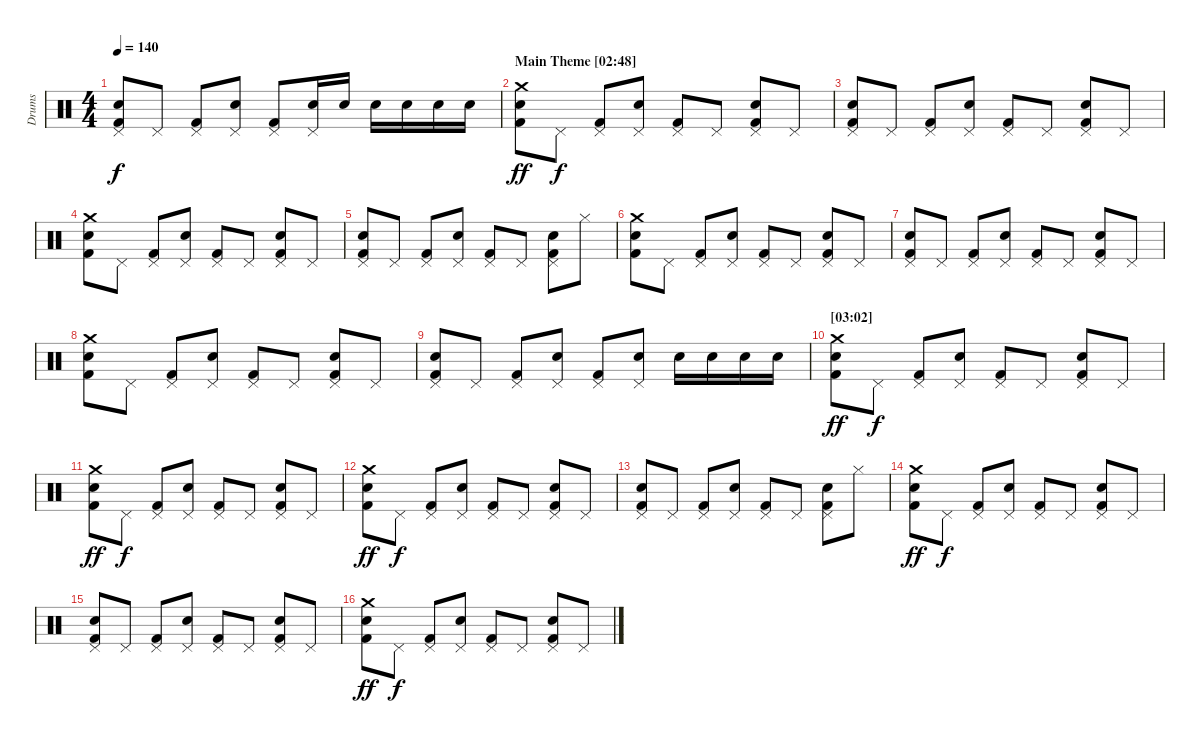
\track ("Drums" "Drums") {instrument percussion}
\staff {score}
\articulation defaults
\ts (4 4)
\tempo 140
\clef neutral
\ks c
("Pedal Hi-Hat (hit)" "Electric Snare (hit)" "Kick (hit) 2").8{dy f} "Pedal Hi-Hat (hit)".8 ("Pedal Hi-Hat (hit)" "Kick (hit) 2").8 ("Pedal Hi-Hat (hit)" "Electric Snare (hit)").8 ("Pedal Hi-Hat (hit)" "Kick (hit) 2").8 ("Pedal Hi-Hat (hit)" "Electric Snare (hit)").16 "Electric Snare (hit)".16 "Electric Snare (hit)".16 "Electric Snare (hit)".16 "Electric Snare (hit)".16 "Electric Snare (hit)".16 |
\section ("" "Main Theme [02:48]")
("Crash medium (hit)" "Electric Snare (hit)" "Kick (hit) 2").8{dy ff} "Pedal Hi-Hat (hit)".8{dy f} ("Pedal Hi-Hat (hit)" "Kick (hit) 2").8 ("Pedal Hi-Hat (hit)" "Electric Snare (hit)").8 ("Pedal Hi-Hat (hit)" "Kick (hit) 2").8 "Pedal Hi-Hat (hit)".8 ("Pedal Hi-Hat (hit)" "Electric Snare (hit)" "Kick (hit) 2").8 "Pedal Hi-Hat (hit)".8 |
("Pedal Hi-Hat (hit)" "Electric Snare (hit)" "Kick (hit) 2").8 "Pedal Hi-Hat (hit)".8 ("Pedal Hi-Hat (hit)" "Kick (hit) 2").8 ("Pedal Hi-Hat (hit)" "Electric Snare (hit)").8 ("Pedal Hi-Hat (hit)" "Kick (hit) 2").8 "Pedal Hi-Hat (hit)".8 ("Pedal Hi-Hat (hit)" "Electric Snare (hit)" "Kick (hit) 2").8 "Pedal Hi-Hat (hit)".8 |
("Crash medium (hit)" "Electric Snare (hit)" "Kick (hit) 2").8 "Pedal Hi-Hat (hit)".8 ("Pedal Hi-Hat (hit)" "Kick (hit) 2").8 ("Pedal Hi-Hat (hit)" "Electric Snare (hit)").8 ("Pedal Hi-Hat (hit)" "Kick (hit) 2").8 "Pedal Hi-Hat (hit)".8 ("Pedal Hi-Hat (hit)" "Electric Snare (hit)" "Kick (hit) 2").8 "Pedal Hi-Hat (hit)".8 |
("Pedal Hi-Hat (hit)" "Electric Snare (hit)" "Kick (hit) 2").8 "Pedal Hi-Hat (hit)".8 ("Pedal Hi-Hat (hit)" "Kick (hit) 2").8 ("Pedal Hi-Hat (hit)" "Electric Snare (hit)").8 ("Pedal Hi-Hat (hit)" "Kick (hit) 2").8 "Pedal Hi-Hat (hit)".8 ("Pedal Hi-Hat (hit)" "Electric Snare (hit)" "Kick (hit) 2").8 "Hi-Hat (closed)".8 |
("Crash medium (hit)" "Electric Snare (hit)" "Kick (hit) 2").8 "Pedal Hi-Hat (hit)".8 ("Pedal Hi-Hat (hit)" "Kick (hit) 2").8 ("Pedal Hi-Hat (hit)" "Electric Snare (hit)").8 ("Pedal Hi-Hat (hit)" "Kick (hit) 2").8 "Pedal Hi-Hat (hit)".8 ("Pedal Hi-Hat (hit)" "Electric Snare (hit)" "Kick (hit) 2").8 "Pedal Hi-Hat (hit)".8 |
("Pedal Hi-Hat (hit)" "Electric Snare (hit)" "Kick (hit) 2").8 "Pedal Hi-Hat (hit)".8 ("Pedal Hi-Hat (hit)" "Kick (hit) 2").8 ("Pedal Hi-Hat (hit)" "Electric Snare (hit)").8 ("Pedal Hi-Hat (hit)" "Kick (hit) 2").8 "Pedal Hi-Hat (hit)".8 ("Pedal Hi-Hat (hit)" "Electric Snare (hit)" "Kick (hit) 2").8 "Pedal Hi-Hat (hit)".8 |
("Crash medium (hit)" "Electric Snare (hit)" "Kick (hit) 2").8 "Pedal Hi-Hat (hit)".8 ("Pedal Hi-Hat (hit)" "Kick (hit) 2").8 ("Pedal Hi-Hat (hit)" "Electric Snare (hit)").8 ("Pedal Hi-Hat (hit)" "Kick (hit) 2").8 "Pedal Hi-Hat (hit)".8 ("Pedal Hi-Hat (hit)" "Electric Snare (hit)" "Kick (hit) 2").8 "Pedal Hi-Hat (hit)".8 |
("Pedal Hi-Hat (hit)" "Electric Snare (hit)" "Kick (hit) 2").8 "Pedal Hi-Hat (hit)".8 ("Pedal Hi-Hat (hit)" "Kick (hit) 2").8 ("Pedal Hi-Hat (hit)" "Electric Snare (hit)").8 ("Pedal Hi-Hat (hit)" "Kick (hit) 2").8 ("Pedal Hi-Hat (hit)" "Electric Snare (hit)").8 "Electric Snare (hit)".16 "Electric Snare (hit)".16 "Electric Snare (hit)".16 "Electric Snare (hit)".16 |
\section ("" "[03:02]")
("Crash medium (hit)" "Electric Snare (hit)" "Kick (hit) 2").8{dy ff} "Pedal Hi-Hat (hit)".8{dy f} ("Pedal Hi-Hat (hit)" "Kick (hit) 2").8 ("Pedal Hi-Hat (hit)" "Electric Snare (hit)").8 ("Pedal Hi-Hat (hit)" "Kick (hit) 2").8 "Pedal Hi-Hat (hit)".8 ("Pedal Hi-Hat (hit)" "Electric Snare (hit)" "Kick (hit) 2").8 "Pedal Hi-Hat (hit)".8 |
("Crash medium (hit)" "Electric Snare (hit)" "Kick (hit) 2").8{dy ff} "Pedal Hi-Hat (hit)".8{dy f} ("Pedal Hi-Hat (hit)" "Kick (hit) 2").8 ("Pedal Hi-Hat (hit)" "Electric Snare (hit)").8 ("Pedal Hi-Hat (hit)" "Kick (hit) 2").8 "Pedal Hi-Hat (hit)".8 ("Pedal Hi-Hat (hit)" "Electric Snare (hit)" "Kick (hit) 2").8 "Pedal Hi-Hat (hit)".8 |
("Crash medium (hit)" "Electric Snare (hit)" "Kick (hit) 2").8{dy ff} "Pedal Hi-Hat (hit)".8{dy f} ("Pedal Hi-Hat (hit)" "Kick (hit) 2").8 ("Pedal Hi-Hat (hit)" "Electric Snare (hit)").8 ("Pedal Hi-Hat (hit)" "Kick (hit) 2").8 "Pedal Hi-Hat (hit)".8 ("Pedal Hi-Hat (hit)" "Electric Snare (hit)" "Kick (hit) 2").8 "Pedal Hi-Hat (hit)".8 |
("Pedal Hi-Hat (hit)" "Electric Snare (hit)" "Kick (hit) 2").8 "Pedal Hi-Hat (hit)".8 ("Pedal Hi-Hat (hit)" "Kick (hit) 2").8 ("Pedal Hi-Hat (hit)" "Electric Snare (hit)").8 ("Pedal Hi-Hat (hit)" "Kick (hit) 2").8 "Pedal Hi-Hat (hit)".8 ("Pedal Hi-Hat (hit)" "Electric Snare (hit)" "Kick (hit) 2").8 "Hi-Hat (closed)".8 |
("Crash medium (hit)" "Electric Snare (hit)" "Kick (hit) 2").8{dy ff} "Pedal Hi-Hat (hit)".8{dy f} ("Pedal Hi-Hat (hit)" "Kick (hit) 2").8 ("Pedal Hi-Hat (hit)" "Electric Snare (hit)").8 ("Pedal Hi-Hat (hit)" "Kick (hit) 2").8 "Pedal Hi-Hat (hit)".8 ("Pedal Hi-Hat (hit)" "Electric Snare (hit)" "Kick (hit) 2").8 "Pedal Hi-Hat (hit)".8 |
\section ("" "")
("Pedal Hi-Hat (hit)" "Electric Snare (hit)" "Kick (hit) 2").8 "Pedal Hi-Hat (hit)".8 ("Pedal Hi-Hat (hit)" "Kick (hit) 2").8 ("Pedal Hi-Hat (hit)" "Electric Snare (hit)").8 ("Pedal Hi-Hat (hit)" "Kick (hit) 2").8 "Pedal Hi-Hat (hit)".8 ("Pedal Hi-Hat (hit)" "Electric Snare (hit)" "Kick (hit) 2").8 "Pedal Hi-Hat (hit)".8 |
("Crash medium (hit)" "Electric Snare (hit)" "Kick (hit) 2").8{dy ff} "Pedal Hi-Hat (hit)".8{dy f} ("Pedal Hi-Hat (hit)" "Kick (hit) 2").8 ("Pedal Hi-Hat (hit)" "Electric Snare (hit)").8 ("Pedal Hi-Hat (hit)" "Kick (hit) 2").8 "Pedal Hi-Hat (hit)".8 ("Pedal Hi-Hat (hit)" "Electric Snare (hit)" "Kick (hit) 2").8 "Pedal Hi-Hat (hit)".8
